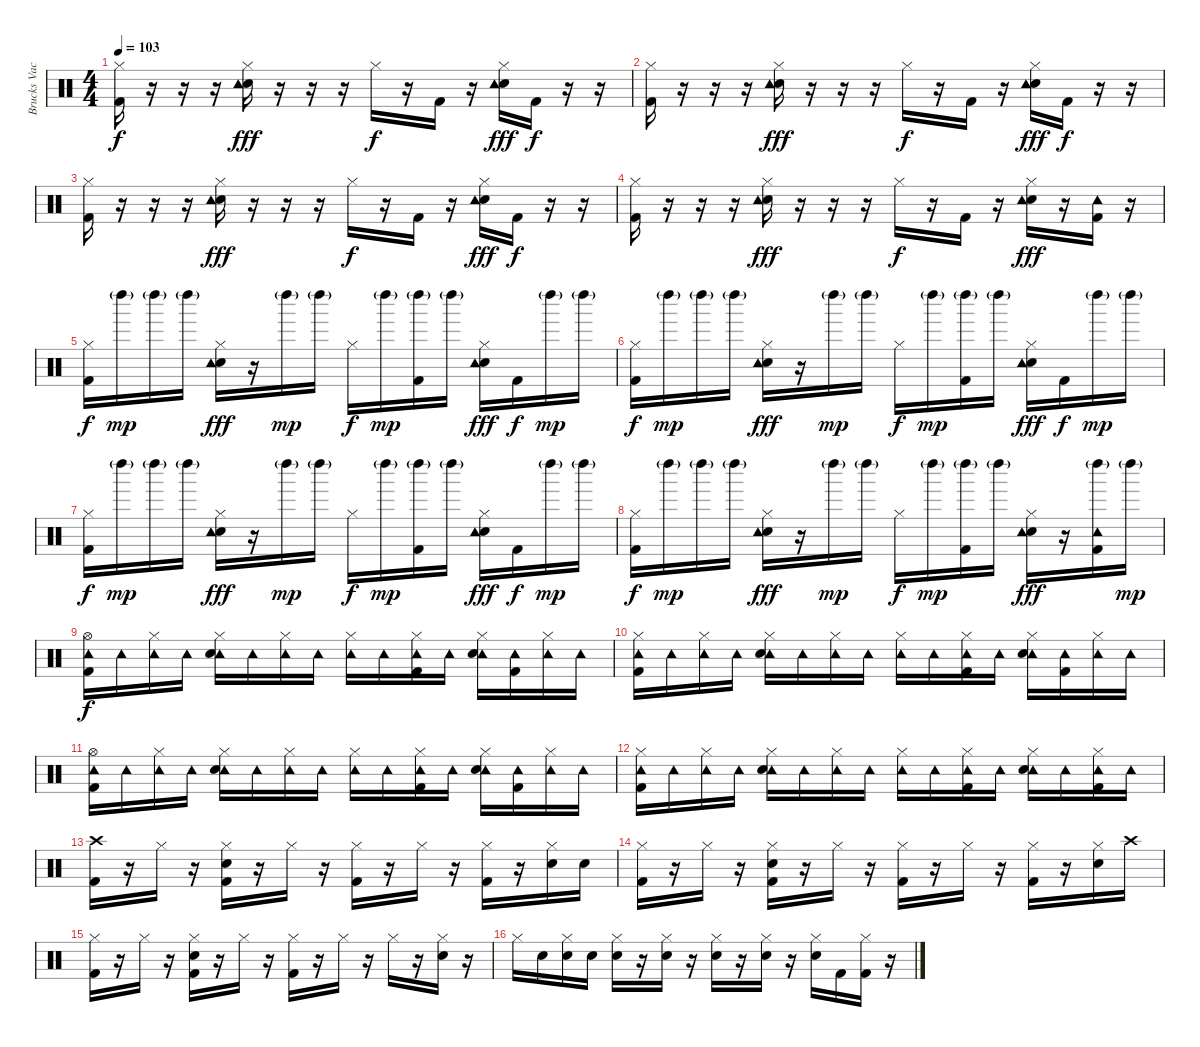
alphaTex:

\track ("Brucks Vackerman" "Brucks Vac") {instrument percussion}
\staff {score}
\articulation defaults
\ts (4 4)
\tempo 103
\clef neutral
\ks c
("Hi-Hat (closed)" "Kick (hit) 2").16{dy f} r.16 r.16 r.16 ("Hi-Hat (closed)" "Electric Snare (hit)" "Tambourine (hit)").16{dy fff} r.16 r.16 r.16 "Hi-Hat (closed)".16{dy f} r.16 "Kick (hit) 2".16 r.16 ("Hi-Hat (closed)" "Electric Snare (hit)" "Tambourine (hit)").16{dy fff} "Kick (hit) 2".16{dy f} r.16 r.16 |
("Hi-Hat (closed)" "Kick (hit) 2").16 r.16 r.16 r.16 ("Hi-Hat (closed)" "Electric Snare (hit)" "Tambourine (hit)").16{dy fff} r.16 r.16 r.16 "Hi-Hat (closed)".16{dy f} r.16 "Kick (hit) 2".16 r.16 ("Hi-Hat (closed)" "Electric Snare (hit)" "Tambourine (hit)").16{dy fff} "Kick (hit) 2".16{dy f} r.16 r.16 |
("Hi-Hat (closed)" "Kick (hit) 2").16 r.16 r.16 r.16 ("Hi-Hat (closed)" "Electric Snare (hit)" "Tambourine (hit)").16{dy fff} r.16 r.16 r.16 "Hi-Hat (closed)".16{dy f} r.16 "Kick (hit) 2".16 r.16 ("Hi-Hat (closed)" "Electric Snare (hit)" "Tambourine (hit)").16{dy fff} "Kick (hit) 2".16{dy f} r.16 r.16 |
("Hi-Hat (closed)" "Kick (hit) 2").16 r.16 r.16 r.16 ("Hi-Hat (closed)" "Electric Snare (hit)" "Tambourine (hit)").16{dy fff} r.16 r.16 r.16 "Hi-Hat (closed)".16{dy f} r.16 "Kick (hit) 2".16 r.16 ("Hi-Hat (closed)" "Electric Snare (hit)" "Tambourine (hit)").16{dy fff} r.16 ("Tambourine (hit)" "Kick (hit) 2").16 r.16 |
("Hi-Hat (closed)" "Kick (hit) 2").16{dy f} "Left Maraca (hit)"{g}.16{dy mp} "Left Maraca (hit)"{g}.16 "Left Maraca (hit)"{g}.16 ("Hi-Hat (closed)" "Electric Snare (hit)" "Tambourine (hit)").16{dy fff} r.16 "Left Maraca (hit)"{g}.16{dy mp} "Left Maraca (hit)"{g}.16 "Hi-Hat (closed)".16{dy f} "Left Maraca (hit)"{g}.16{dy mp} ("Left Maraca (hit)"{g} "Kick (hit) 2").16 "Left Maraca (hit)"{g}.16 ("Hi-Hat (closed)" "Electric Snare (hit)" "Tambourine (hit)").16{dy fff} "Kick (hit) 2".16{dy f} "Left Maraca (hit)"{g}.16{dy mp} "Left Maraca (hit)"{g}.16 |
("Hi-Hat (closed)" "Kick (hit) 2").16{dy f} "Left Maraca (hit)"{g}.16{dy mp} "Left Maraca (hit)"{g}.16 "Left Maraca (hit)"{g}.16 ("Hi-Hat (closed)" "Electric Snare (hit)" "Tambourine (hit)").16{dy fff} r.16 "Left Maraca (hit)"{g}.16{dy mp} "Left Maraca (hit)"{g}.16 "Hi-Hat (closed)".16{dy f} "Left Maraca (hit)"{g}.16{dy mp} ("Left Maraca (hit)"{g} "Kick (hit) 2").16 "Left Maraca (hit)"{g}.16 ("Hi-Hat (closed)" "Electric Snare (hit)" "Tambourine (hit)").16{dy fff} "Kick (hit) 2".16{dy f} "Left Maraca (hit)"{g}.16{dy mp} "Left Maraca (hit)"{g}.16 |
("Hi-Hat (closed)" "Kick (hit) 2").16{dy f} "Left Maraca (hit)"{g}.16{dy mp} "Left Maraca (hit)"{g}.16 "Left Maraca (hit)"{g}.16 ("Hi-Hat (closed)" "Electric Snare (hit)" "Tambourine (hit)").16{dy fff} r.16 "Left Maraca (hit)"{g}.16{dy mp} "Left Maraca (hit)"{g}.16 "Hi-Hat (closed)".16{dy f} "Left Maraca (hit)"{g}.16{dy mp} ("Left Maraca (hit)"{g} "Kick (hit) 2").16 "Left Maraca (hit)"{g}.16 ("Hi-Hat (closed)" "Electric Snare (hit)" "Tambourine (hit)").16{dy fff} "Kick (hit) 2".16{dy f} "Left Maraca (hit)"{g}.16{dy mp} "Left Maraca (hit)"{g}.16 |
("Hi-Hat (closed)" "Kick (hit) 2").16{dy f} "Left Maraca (hit)"{g}.16{dy mp} "Left Maraca (hit)"{g}.16 "Left Maraca (hit)"{g}.16 ("Hi-Hat (closed)" "Electric Snare (hit)" "Tambourine (hit)").16{dy fff} r.16 "Left Maraca (hit)"{g}.16{dy mp} "Left Maraca (hit)"{g}.16 "Hi-Hat (closed)".16{dy f} "Left Maraca (hit)"{g}.16{dy mp} ("Left Maraca (hit)"{g} "Kick (hit) 2").16 "Left Maraca (hit)"{g}.16 ("Hi-Hat (closed)" "Electric Snare (hit)" "Tambourine (hit)").16{dy fff} r.16 ("Left Maraca (hit)"{g} "Tambourine (hit)" "Kick (hit) 2").16 "Left Maraca (hit)"{g}.16{dy mp} |
("Hi-Hat (open)" "Tambourine (hit)" "Kick (hit) 2").16{dy f} "Tambourine (hit)".16 ("Hi-Hat (closed)" "Tambourine (hit)").16 "Tambourine (hit)".16 ("Hi-Hat (closed)" "Tambourine (hit)" "Electric Snare (hit)").16 "Tambourine (hit)".16 ("Hi-Hat (closed)" "Tambourine (hit)").16 "Tambourine (hit)".16 ("Hi-Hat (closed)" "Tambourine (hit)").16 "Tambourine (hit)".16 ("Hi-Hat (closed)" "Tambourine (hit)" "Kick (hit) 2").16 "Tambourine (hit)".16 ("Hi-Hat (closed)" "Tambourine (hit)" "Electric Snare (hit)").16 ("Tambourine (hit)" "Kick (hit) 2").16 ("Hi-Hat (closed)" "Tambourine (hit)").16 "Tambourine (hit)".16 |
("Hi-Hat (closed)" "Tambourine (hit)" "Kick (hit) 2").16 "Tambourine (hit)".16 ("Hi-Hat (closed)" "Tambourine (hit)").16 "Tambourine (hit)".16 ("Hi-Hat (closed)" "Tambourine (hit)" "Electric Snare (hit)").16 "Tambourine (hit)".16 ("Hi-Hat (closed)" "Tambourine (hit)").16 "Tambourine (hit)".16 ("Hi-Hat (closed)" "Tambourine (hit)").16 "Tambourine (hit)".16 ("Hi-Hat (closed)" "Tambourine (hit)" "Kick (hit) 2").16 "Tambourine (hit)".16 ("Hi-Hat (closed)" "Tambourine (hit)" "Electric Snare (hit)").16 ("Tambourine (hit)" "Kick (hit) 2").16 ("Hi-Hat (closed)" "Tambourine (hit)").16 "Tambourine (hit)".16 |
("Hi-Hat (open)" "Tambourine (hit)" "Kick (hit) 2").16 "Tambourine (hit)".16 ("Hi-Hat (closed)" "Tambourine (hit)").16 "Tambourine (hit)".16 ("Hi-Hat (closed)" "Tambourine (hit)" "Electric Snare (hit)").16 "Tambourine (hit)".16 ("Hi-Hat (closed)" "Tambourine (hit)").16 "Tambourine (hit)".16 ("Hi-Hat (closed)" "Tambourine (hit)").16 "Tambourine (hit)".16 ("Hi-Hat (closed)" "Tambourine (hit)" "Kick (hit) 2").16 "Tambourine (hit)".16 ("Hi-Hat (closed)" "Tambourine (hit)" "Electric Snare (hit)").16 ("Tambourine (hit)" "Kick (hit) 2").16 ("Hi-Hat (closed)" "Tambourine (hit)").16 "Tambourine (hit)".16 |
("Hi-Hat (closed)" "Tambourine (hit)" "Kick (hit) 2").16 "Tambourine (hit)".16 ("Hi-Hat (closed)" "Tambourine (hit)").16 "Tambourine (hit)".16 ("Hi-Hat (closed)" "Tambourine (hit)" "Electric Snare (hit)").16 "Tambourine (hit)".16 ("Hi-Hat (closed)" "Tambourine (hit)").16 "Tambourine (hit)".16 ("Hi-Hat (closed)" "Tambourine (hit)").16 "Tambourine (hit)".16 ("Hi-Hat (closed)" "Tambourine (hit)" "Kick (hit) 2").16 "Tambourine (hit)".16 ("Hi-Hat (closed)" "Tambourine (hit)" "Electric Snare (hit)").16 "Tambourine (hit)".16 ("Hi-Hat (closed)" "Tambourine (hit)" "Kick (hit) 2").16 "Tambourine (hit)".16 |
("Crash high (hit)" "Kick (hit) 2").16 r.16 "Hi-Hat (closed)".16 r.16 ("Hi-Hat (closed)" "Electric Snare (hit)" "Kick (hit) 2").16 r.16 "Hi-Hat (closed)".16 r.16 ("Hi-Hat (closed)" "Kick (hit) 2").16 r.16 "Hi-Hat (closed)".16 r.16 ("Hi-Hat (closed)" "Kick (hit) 2").16 r.16 ("Hi-Hat (closed)" "Electric Snare (hit)").16 "Electric Snare (hit)".16 |
("Hi-Hat (closed)" "Kick (hit) 2").16 r.16 "Hi-Hat (closed)".16 r.16 ("Hi-Hat (closed)" "Electric Snare (hit)" "Kick (hit) 2").16 r.16 "Hi-Hat (closed)".16 r.16 ("Hi-Hat (closed)" "Kick (hit) 2").16 r.16 "Hi-Hat (closed)".16 r.16 ("Hi-Hat (closed)" "Kick (hit) 2").16 r.16 ("Hi-Hat (closed)" "Electric Snare (hit)").16 "Crash high (hit)".16 |
("Hi-Hat (closed)" "Kick (hit) 2").16 r.16 "Hi-Hat (closed)".16 r.16 ("Hi-Hat (closed)" "Electric Snare (hit)" "Kick (hit) 2").16 r.16 "Hi-Hat (closed)".16 r.16 ("Hi-Hat (closed)" "Kick (hit) 2").16 r.16 "Hi-Hat (closed)".16 r.16 "Hi-Hat (closed)".16 r.16 ("Hi-Hat (closed)" "Electric Snare (hit)").16 r.16 |
"Hi-Hat (closed)".16 "Electric Snare (hit)".16 ("Hi-Hat (closed)" "Electric Snare (hit)").16 "Electric Snare (hit)".16 ("Hi-Hat (closed)" "Electric Snare (hit)").16 r.16 ("Hi-Hat (closed)" "Electric Snare (hit)").16 r.16 ("Hi-Hat (closed)" "Electric Snare (hit)").16 r.16 ("Hi-Hat (closed)" "Electric Snare (hit)").16 r.16 ("Hi-Hat (closed)" "Electric Snare (hit)").16 "Kick (hit) 2".16 ("Hi-Hat (closed)" "Kick (hit) 2").16 r.16
